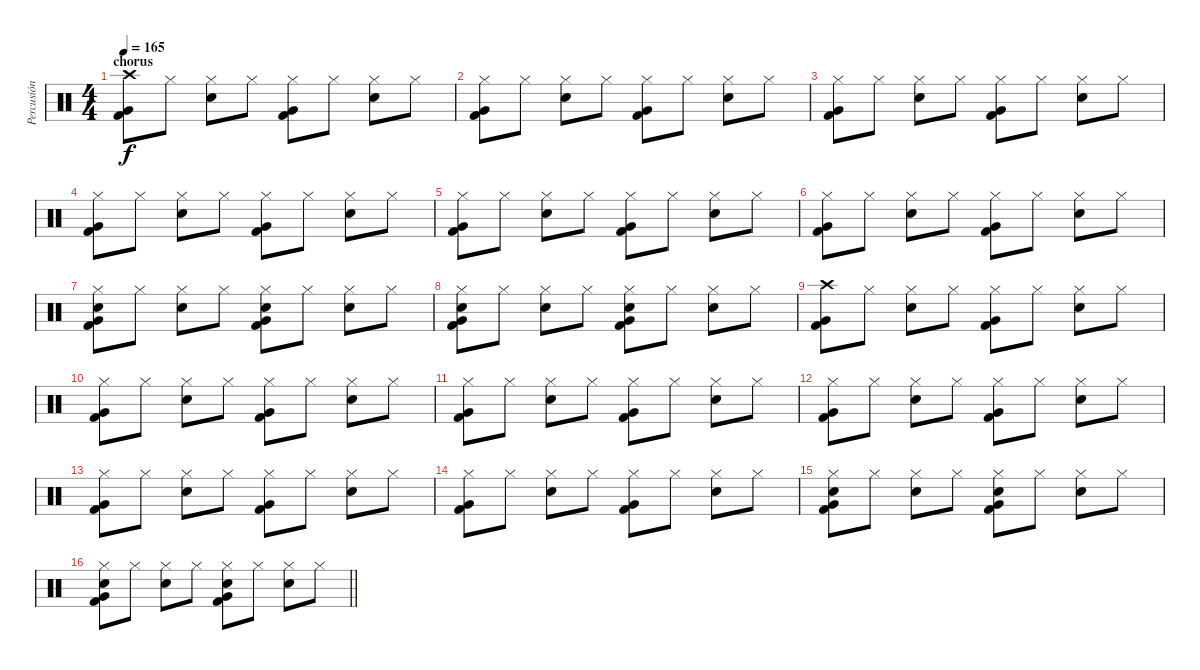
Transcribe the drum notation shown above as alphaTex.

\track ("Percusión" "Percusión") {instrument percussion}
\staff {score}
\articulation defaults
\ts (4 4)
\section ("" "chorus")
\tempo 165
\clef neutral
\ks c
("Crash high (hit)" "Kick (hit) 2" "Very Low Tom (hit)").8{dy f} "Hi-Hat (closed)".8 ("Hi-Hat (closed)" "Electric Snare (hit)").8 "Hi-Hat (closed)".8 ("Hi-Hat (closed)" "Kick (hit) 2" "Very Low Tom (hit)").8 "Hi-Hat (closed)".8 ("Hi-Hat (closed)" "Electric Snare (hit)").8 "Hi-Hat (closed)".8 |
("Hi-Hat (closed)" "Kick (hit) 2" "Very Low Tom (hit)").8 "Hi-Hat (closed)".8 ("Hi-Hat (closed)" "Electric Snare (hit)").8 "Hi-Hat (closed)".8 ("Hi-Hat (closed)" "Kick (hit) 2" "Very Low Tom (hit)").8 "Hi-Hat (closed)".8 ("Hi-Hat (closed)" "Electric Snare (hit)").8 "Hi-Hat (closed)".8 |
("Hi-Hat (closed)" "Kick (hit) 2" "Very Low Tom (hit)").8 "Hi-Hat (closed)".8 ("Hi-Hat (closed)" "Electric Snare (hit)").8 "Hi-Hat (closed)".8 ("Hi-Hat (closed)" "Kick (hit) 2" "Very Low Tom (hit)").8 "Hi-Hat (closed)".8 ("Hi-Hat (closed)" "Electric Snare (hit)").8 "Hi-Hat (closed)".8 |
("Hi-Hat (closed)" "Kick (hit) 2" "Very Low Tom (hit)").8 "Hi-Hat (closed)".8 ("Hi-Hat (closed)" "Electric Snare (hit)").8 "Hi-Hat (closed)".8 ("Hi-Hat (closed)" "Kick (hit) 2" "Very Low Tom (hit)").8 "Hi-Hat (closed)".8 ("Hi-Hat (closed)" "Electric Snare (hit)").8 "Hi-Hat (closed)".8 |
("Hi-Hat (closed)" "Kick (hit) 2" "Very Low Tom (hit)").8 "Hi-Hat (closed)".8 ("Hi-Hat (closed)" "Electric Snare (hit)").8 "Hi-Hat (closed)".8 ("Hi-Hat (closed)" "Kick (hit) 2" "Very Low Tom (hit)").8 "Hi-Hat (closed)".8 ("Hi-Hat (closed)" "Electric Snare (hit)").8 "Hi-Hat (closed)".8 |
("Hi-Hat (closed)" "Kick (hit) 2" "Very Low Tom (hit)").8 "Hi-Hat (closed)".8 ("Hi-Hat (closed)" "Electric Snare (hit)").8 "Hi-Hat (closed)".8 ("Hi-Hat (closed)" "Kick (hit) 2" "Very Low Tom (hit)").8 "Hi-Hat (closed)".8 ("Hi-Hat (closed)" "Electric Snare (hit)").8 "Hi-Hat (closed)".8 |
("Hi-Hat (closed)" "Electric Snare (hit)" "Kick (hit) 2" "Very Low Tom (hit)").8 "Hi-Hat (closed)".8 ("Hi-Hat (closed)" "Electric Snare (hit)").8 "Hi-Hat (closed)".8 ("Hi-Hat (closed)" "Electric Snare (hit)" "Kick (hit) 2" "Very Low Tom (hit)").8 "Hi-Hat (closed)".8 ("Hi-Hat (closed)" "Electric Snare (hit)").8 "Hi-Hat (closed)".8 |
("Hi-Hat (closed)" "Electric Snare (hit)" "Kick (hit) 2" "Very Low Tom (hit)").8 "Hi-Hat (closed)".8 ("Hi-Hat (closed)" "Electric Snare (hit)").8 "Hi-Hat (closed)".8 ("Hi-Hat (closed)" "Electric Snare (hit)" "Kick (hit) 2" "Very Low Tom (hit)").8 "Hi-Hat (closed)".8 ("Hi-Hat (closed)" "Electric Snare (hit)").8 "Hi-Hat (closed)".8 |
("Crash high (hit)" "Kick (hit) 2" "Very Low Tom (hit)").8 "Hi-Hat (closed)".8 ("Hi-Hat (closed)" "Electric Snare (hit)").8 "Hi-Hat (closed)".8 ("Hi-Hat (closed)" "Kick (hit) 2" "Very Low Tom (hit)").8 "Hi-Hat (closed)".8 ("Hi-Hat (closed)" "Electric Snare (hit)").8 "Hi-Hat (closed)".8 |
("Hi-Hat (closed)" "Kick (hit) 2" "Very Low Tom (hit)").8 "Hi-Hat (closed)".8 ("Hi-Hat (closed)" "Electric Snare (hit)").8 "Hi-Hat (closed)".8 ("Hi-Hat (closed)" "Kick (hit) 2" "Very Low Tom (hit)").8 "Hi-Hat (closed)".8 ("Hi-Hat (closed)" "Electric Snare (hit)").8 "Hi-Hat (closed)".8 |
("Hi-Hat (closed)" "Kick (hit) 2" "Very Low Tom (hit)").8 "Hi-Hat (closed)".8 ("Hi-Hat (closed)" "Electric Snare (hit)").8 "Hi-Hat (closed)".8 ("Hi-Hat (closed)" "Kick (hit) 2" "Very Low Tom (hit)").8 "Hi-Hat (closed)".8 ("Hi-Hat (closed)" "Electric Snare (hit)").8 "Hi-Hat (closed)".8 |
("Hi-Hat (closed)" "Kick (hit) 2" "Very Low Tom (hit)").8 "Hi-Hat (closed)".8 ("Hi-Hat (closed)" "Electric Snare (hit)").8 "Hi-Hat (closed)".8 ("Hi-Hat (closed)" "Kick (hit) 2" "Very Low Tom (hit)").8 "Hi-Hat (closed)".8 ("Hi-Hat (closed)" "Electric Snare (hit)").8 "Hi-Hat (closed)".8 |
("Hi-Hat (closed)" "Kick (hit) 2" "Very Low Tom (hit)").8 "Hi-Hat (closed)".8 ("Hi-Hat (closed)" "Electric Snare (hit)").8 "Hi-Hat (closed)".8 ("Hi-Hat (closed)" "Kick (hit) 2" "Very Low Tom (hit)").8 "Hi-Hat (closed)".8 ("Hi-Hat (closed)" "Electric Snare (hit)").8 "Hi-Hat (closed)".8 |
("Hi-Hat (closed)" "Kick (hit) 2" "Very Low Tom (hit)").8 "Hi-Hat (closed)".8 ("Hi-Hat (closed)" "Electric Snare (hit)").8 "Hi-Hat (closed)".8 ("Hi-Hat (closed)" "Kick (hit) 2" "Very Low Tom (hit)").8 "Hi-Hat (closed)".8 ("Hi-Hat (closed)" "Electric Snare (hit)").8 "Hi-Hat (closed)".8 |
("Hi-Hat (closed)" "Electric Snare (hit)" "Kick (hit) 2" "Very Low Tom (hit)").8 "Hi-Hat (closed)".8 ("Hi-Hat (closed)" "Electric Snare (hit)").8 "Hi-Hat (closed)".8 ("Hi-Hat (closed)" "Electric Snare (hit)" "Kick (hit) 2" "Very Low Tom (hit)").8 "Hi-Hat (closed)".8 ("Hi-Hat (closed)" "Electric Snare (hit)").8 "Hi-Hat (closed)".8 |
\barLineRight lightlight
("Hi-Hat (closed)" "Electric Snare (hit)" "Kick (hit) 2" "Very Low Tom (hit)").8 "Hi-Hat (closed)".8 ("Hi-Hat (closed)" "Electric Snare (hit)").8 "Hi-Hat (closed)".8 ("Hi-Hat (closed)" "Electric Snare (hit)" "Kick (hit) 2" "Very Low Tom (hit)").8 "Hi-Hat (closed)".8 ("Hi-Hat (closed)" "Electric Snare (hit)").8 "Hi-Hat (closed)".8
